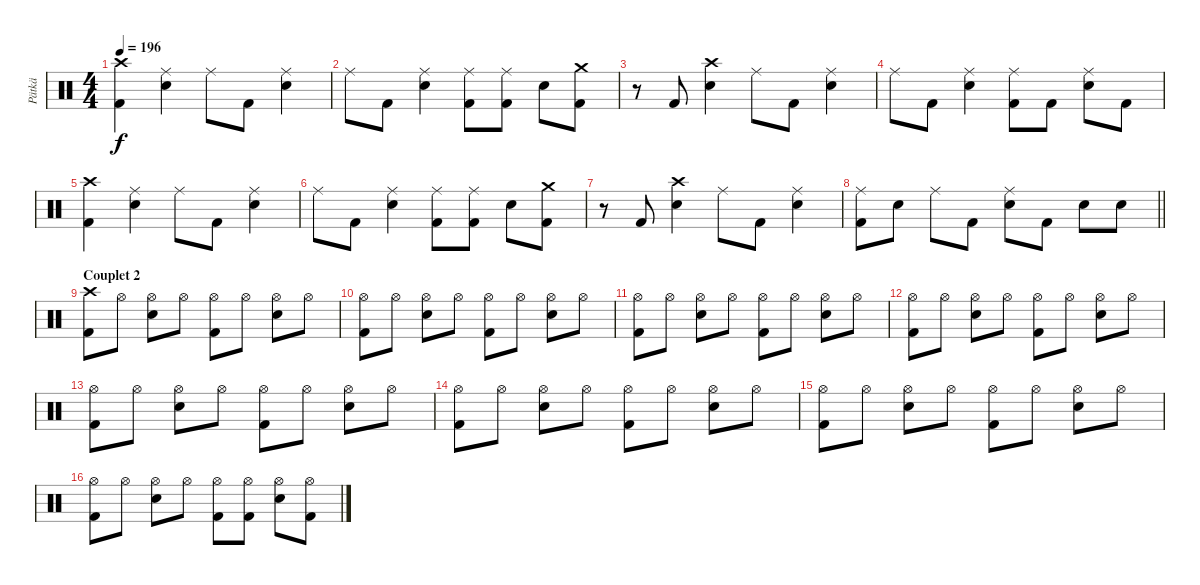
\track ("Pätkä" "Pätkä") {instrument percussion}
\staff {score}
\articulation defaults
\ts (4 4)
\tempo 196
\clef neutral
\ks c
("Crash high (hit)" "Kick (hit) 2").4{dy f} ("Ride (middle)" "Electric Snare (hit)").4 "Ride (middle)".8 "Kick (hit) 2".8 ("Ride (middle)" "Electric Snare (hit)").4 |
"Ride (middle)".8 "Kick (hit) 2".8 ("Ride (middle)" "Electric Snare (hit)").4 ("Ride (middle)" "Kick (hit) 2").8 ("Ride (middle)" "Kick (hit) 2").8 "Electric Snare (hit)".8 ("Crash medium (hit)" "Kick (hit) 2").8 |
r.8 "Kick (hit) 2".8 ("Crash high (hit)" "Electric Snare (hit)").4 "Ride (middle)".8 "Kick (hit) 2".8 ("Ride (middle)" "Electric Snare (hit)").4 |
"Ride (middle)".8 "Kick (hit) 2".8 ("Ride (middle)" "Electric Snare (hit)").4 ("Ride (middle)" "Kick (hit) 2").8 "Kick (hit) 2".8 ("Ride (middle)" "Electric Snare (hit)").8 "Kick (hit) 2".8 |
("Crash high (hit)" "Kick (hit) 2").4 ("Ride (middle)" "Electric Snare (hit)").4 "Ride (middle)".8 "Kick (hit) 2".8 ("Ride (middle)" "Electric Snare (hit)").4 |
"Ride (middle)".8 "Kick (hit) 2".8 ("Ride (middle)" "Electric Snare (hit)").4 ("Ride (middle)" "Kick (hit) 2").8 ("Ride (middle)" "Kick (hit) 2").8 "Electric Snare (hit)".8 ("Crash medium (hit)" "Kick (hit) 2").8 |
r.8 "Kick (hit) 2".8 ("Crash high (hit)" "Electric Snare (hit)").4 "Ride (middle)".8 "Kick (hit) 2".8 ("Ride (middle)" "Electric Snare (hit)").4 |
\barLineRight lightlight
("Ride (middle)" "Kick (hit) 2").8 "Electric Snare (hit)".8 "Ride (middle)".8 "Kick (hit) 2".8 ("Ride (middle)" "Electric Snare (hit)").8 "Kick (hit) 2".8 "Electric Snare (hit)".8 "Electric Snare (hit)".8 |
\section ("" "Couplet 2")
("Crash high (hit)" "Kick (hit) 2").8 "Hi-Hat (open)".8 ("Hi-Hat (open)" "Electric Snare (hit)").8 "Hi-Hat (open)".8 ("Hi-Hat (open)" "Kick (hit) 2").8 "Hi-Hat (open)".8 ("Hi-Hat (open)" "Electric Snare (hit)").8 "Hi-Hat (open)".8 |
("Hi-Hat (open)" "Kick (hit) 2").8 "Hi-Hat (open)".8 ("Hi-Hat (open)" "Electric Snare (hit)").8 "Hi-Hat (open)".8 ("Hi-Hat (open)" "Kick (hit) 2").8 "Hi-Hat (open)".8 ("Hi-Hat (open)" "Electric Snare (hit)").8 "Hi-Hat (open)".8 |
("Hi-Hat (open)" "Kick (hit) 2").8 "Hi-Hat (open)".8 ("Hi-Hat (open)" "Electric Snare (hit)").8 "Hi-Hat (open)".8 ("Hi-Hat (open)" "Kick (hit) 2").8 "Hi-Hat (open)".8 ("Hi-Hat (open)" "Electric Snare (hit)").8 "Hi-Hat (open)".8 |
("Hi-Hat (open)" "Kick (hit) 2").8 "Hi-Hat (open)".8 ("Hi-Hat (open)" "Electric Snare (hit)").8 "Hi-Hat (open)".8 ("Hi-Hat (open)" "Kick (hit) 2").8 "Hi-Hat (open)".8 ("Hi-Hat (open)" "Electric Snare (hit)").8 "Hi-Hat (open)".8 |
("Hi-Hat (open)" "Kick (hit) 2").8 "Hi-Hat (open)".8 ("Hi-Hat (open)" "Electric Snare (hit)").8 "Hi-Hat (open)".8 ("Hi-Hat (open)" "Kick (hit) 2").8 "Hi-Hat (open)".8 ("Hi-Hat (open)" "Electric Snare (hit)").8 "Hi-Hat (open)".8 |
("Hi-Hat (open)" "Kick (hit) 2").8 "Hi-Hat (open)".8 ("Hi-Hat (open)" "Electric Snare (hit)").8 "Hi-Hat (open)".8 ("Hi-Hat (open)" "Kick (hit) 2").8 "Hi-Hat (open)".8 ("Hi-Hat (open)" "Electric Snare (hit)").8 "Hi-Hat (open)".8 |
("Hi-Hat (open)" "Kick (hit) 2").8 "Hi-Hat (open)".8 ("Hi-Hat (open)" "Electric Snare (hit)").8 "Hi-Hat (open)".8 ("Hi-Hat (open)" "Kick (hit) 2").8 "Hi-Hat (open)".8 ("Hi-Hat (open)" "Electric Snare (hit)").8 "Hi-Hat (open)".8 |
("Hi-Hat (open)" "Kick (hit) 2").8 "Hi-Hat (open)".8 ("Hi-Hat (open)" "Electric Snare (hit)").8 "Hi-Hat (open)".8 ("Hi-Hat (open)" "Kick (hit) 2").8 ("Hi-Hat (open)" "Kick (hit) 2").8 ("Hi-Hat (open)" "Electric Snare (hit)").8 ("Hi-Hat (open)" "Kick (hit) 2").8
